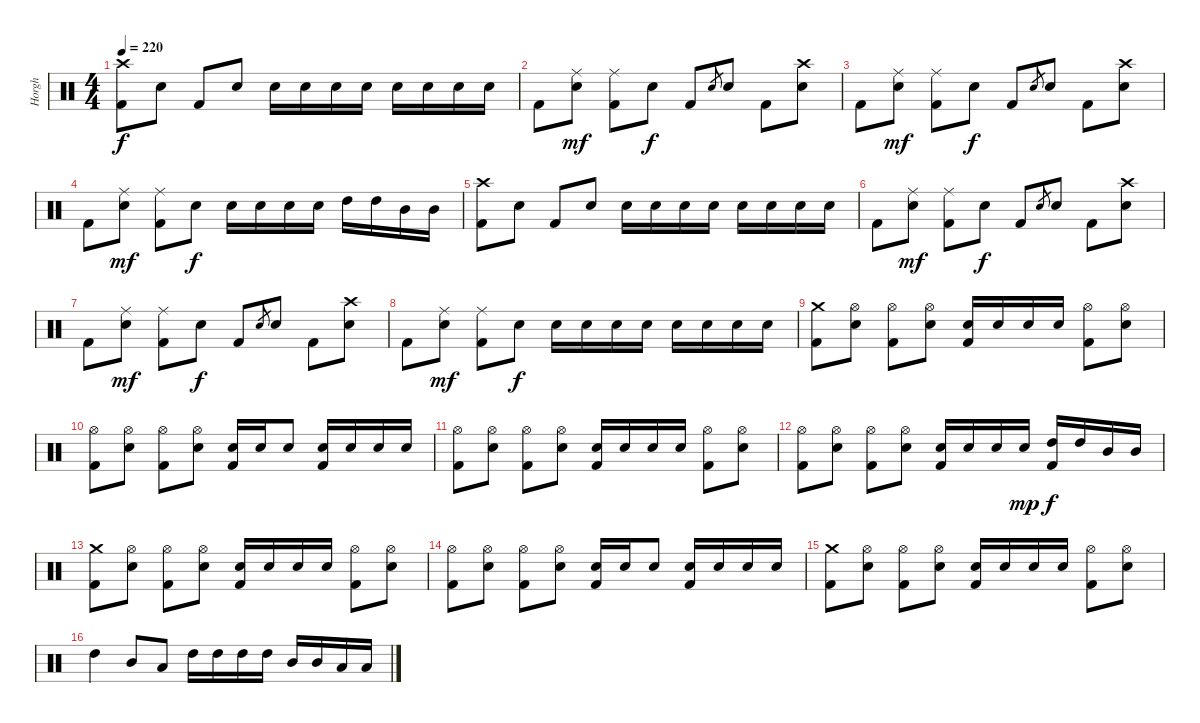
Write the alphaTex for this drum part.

\track ("Horgh" "Horgh") {instrument percussion}
\staff {score}
\articulation defaults
\ts (4 4)
\tempo 220
\clef neutral
\ks c
("Crash high (hit)" "Kick (hit) 2").8{dy f} "Electric Snare (hit)".8 "Kick (hit) 2".8 "Electric Snare (hit)".8 "Electric Snare (hit)".16 "Electric Snare (hit)".16 "Electric Snare (hit)".16 "Electric Snare (hit)".16 "Electric Snare (hit)".16 "Electric Snare (hit)".16 "Electric Snare (hit)".16 "Electric Snare (hit)".16 |
"Kick (hit) 2".8 ("Ride (middle)" "Electric Snare (hit)").8{dy mf} ("Ride (middle)" "Kick (hit) 2").8 "Electric Snare (hit)".8{dy f} "Kick (hit) 2".8 "Electric Snare (hit)".8{gr} "Electric Snare (hit)".8 "Kick (hit) 2".8 ("Crash high (hit)" "Electric Snare (hit)").8 |
"Kick (hit) 2".8 ("Ride (middle)" "Electric Snare (hit)").8{dy mf} ("Ride (middle)" "Kick (hit) 2").8 "Electric Snare (hit)".8{dy f} "Kick (hit) 2".8 "Electric Snare (hit)".8{gr} "Electric Snare (hit)".8 "Kick (hit) 2".8 ("Crash high (hit)" "Electric Snare (hit)").8 |
"Kick (hit) 2".8 ("Ride (middle)" "Electric Snare (hit)").8{dy mf} ("Ride (middle)" "Kick (hit) 2").8 "Electric Snare (hit)".8{dy f} "Electric Snare (hit)".16 "Electric Snare (hit)".16 "Electric Snare (hit)".16 "Electric Snare (hit)".16 "High Tom (hit)".16{balance 4} "High Tom (hit)".16 "Mid Tom (hit)".16{balance 12} "Mid Tom (hit)".16 |
("Crash high (hit)" "Kick (hit) 2").8{balance 8} "Electric Snare (hit)".8 "Kick (hit) 2".8 "Electric Snare (hit)".8 "Electric Snare (hit)".16 "Electric Snare (hit)".16 "Electric Snare (hit)".16 "Electric Snare (hit)".16 "Electric Snare (hit)".16 "Electric Snare (hit)".16 "Electric Snare (hit)".16 "Electric Snare (hit)".16 |
"Kick (hit) 2".8 ("Ride (middle)" "Electric Snare (hit)").8{dy mf} ("Ride (middle)" "Kick (hit) 2").8 "Electric Snare (hit)".8{dy f} "Kick (hit) 2".8 "Electric Snare (hit)".8{gr} "Electric Snare (hit)".8 "Kick (hit) 2".8 ("Crash high (hit)" "Electric Snare (hit)").8 |
"Kick (hit) 2".8 ("Ride (middle)" "Electric Snare (hit)").8{dy mf} ("Ride (middle)" "Kick (hit) 2").8 "Electric Snare (hit)".8{dy f} "Kick (hit) 2".8 "Electric Snare (hit)".8{gr} "Electric Snare (hit)".8 "Kick (hit) 2".8 ("Crash high (hit)" "Electric Snare (hit)").8 |
"Kick (hit) 2".8 ("Ride (middle)" "Electric Snare (hit)").8{dy mf} ("Ride (middle)" "Kick (hit) 2").8 "Electric Snare (hit)".8{dy f} "Electric Snare (hit)".16 "Electric Snare (hit)".16 "Electric Snare (hit)".16 "Electric Snare (hit)".16 "Electric Snare (hit)".16 "Electric Snare (hit)".16 "Electric Snare (hit)".16 "Electric Snare (hit)".16 |
("Crash medium (hit)" "Kick (hit) 2").8 ("Hi-Hat (open)" "Electric Snare (hit)").8 ("Hi-Hat (open)" "Kick (hit) 2").8 ("Hi-Hat (open)" "Electric Snare (hit)").8 ("Electric Snare (hit)" "Kick (hit) 2").16 "Electric Snare (hit)".16 "Electric Snare (hit)".16 "Electric Snare (hit)".16 ("Hi-Hat (open)" "Kick (hit) 2").8 ("Hi-Hat (open)" "Electric Snare (hit)").8 |
("Hi-Hat (open)" "Kick (hit) 2").8 ("Hi-Hat (open)" "Electric Snare (hit)").8 ("Hi-Hat (open)" "Kick (hit) 2").8 ("Hi-Hat (open)" "Electric Snare (hit)").8 ("Electric Snare (hit)" "Kick (hit) 2").16 "Electric Snare (hit)".16 "Electric Snare (hit)".8 ("Electric Snare (hit)" "Kick (hit) 2").16 "Electric Snare (hit)".16 "Electric Snare (hit)".16 "Electric Snare (hit)".16 |
("Hi-Hat (open)" "Kick (hit) 2").8 ("Hi-Hat (open)" "Electric Snare (hit)").8 ("Hi-Hat (open)" "Kick (hit) 2").8 ("Hi-Hat (open)" "Electric Snare (hit)").8 ("Electric Snare (hit)" "Kick (hit) 2").16 "Electric Snare (hit)".16 "Electric Snare (hit)".16 "Electric Snare (hit)".16 ("Hi-Hat (open)" "Kick (hit) 2").8 ("Hi-Hat (open)" "Electric Snare (hit)").8 |
("Hi-Hat (open)" "Kick (hit) 2").8 ("Hi-Hat (open)" "Electric Snare (hit)").8 ("Hi-Hat (open)" "Kick (hit) 2").8 ("Hi-Hat (open)" "Electric Snare (hit)").8 ("Electric Snare (hit)" "Kick (hit) 2").16 "Electric Snare (hit)".16 "Electric Snare (hit)".16 "Electric Snare (hit)".16{dy mp} ("High Tom (hit)" "Kick (hit) 2").16{dy f} "High Tom (hit)".16 "Mid Tom (hit)".16 "Mid Tom (hit)".16 |
("Crash medium (hit)" "Kick (hit) 2").8 ("Hi-Hat (open)" "Electric Snare (hit)").8 ("Hi-Hat (open)" "Kick (hit) 2").8 ("Hi-Hat (open)" "Electric Snare (hit)").8 ("Electric Snare (hit)" "Kick (hit) 2").16 "Electric Snare (hit)".16 "Electric Snare (hit)".16 "Electric Snare (hit)".16 ("Hi-Hat (open)" "Kick (hit) 2").8 ("Hi-Hat (open)" "Electric Snare (hit)").8 |
("Hi-Hat (open)" "Kick (hit) 2").8 ("Hi-Hat (open)" "Electric Snare (hit)").8 ("Hi-Hat (open)" "Kick (hit) 2").8 ("Hi-Hat (open)" "Electric Snare (hit)").8 ("Electric Snare (hit)" "Kick (hit) 2").16 "Electric Snare (hit)".16 "Electric Snare (hit)".8 ("Electric Snare (hit)" "Kick (hit) 2").16 "Electric Snare (hit)".16 "Electric Snare (hit)".16 "Electric Snare (hit)".16 |
("Crash medium (hit)" "Kick (hit) 2").8 ("Hi-Hat (open)" "Electric Snare (hit)").8 ("Hi-Hat (open)" "Kick (hit) 2").8 ("Hi-Hat (open)" "Electric Snare (hit)").8 ("Electric Snare (hit)" "Kick (hit) 2").16 "Electric Snare (hit)".16 "Electric Snare (hit)".16 "Electric Snare (hit)".16 ("Hi-Hat (open)" "Kick (hit) 2").8 ("Hi-Hat (open)" "Electric Snare (hit)").8 |
"High Tom (hit)".4 "Mid Tom (hit)".8 "Low Tom (hit)".8 "High Tom (hit)".16 "High Tom (hit)".16 "High Tom (hit)".16 "High Tom (hit)".16 "Mid Tom (hit)".16 "Mid Tom (hit)".16 "Low Tom (hit)".16 "Low Tom (hit)".16
